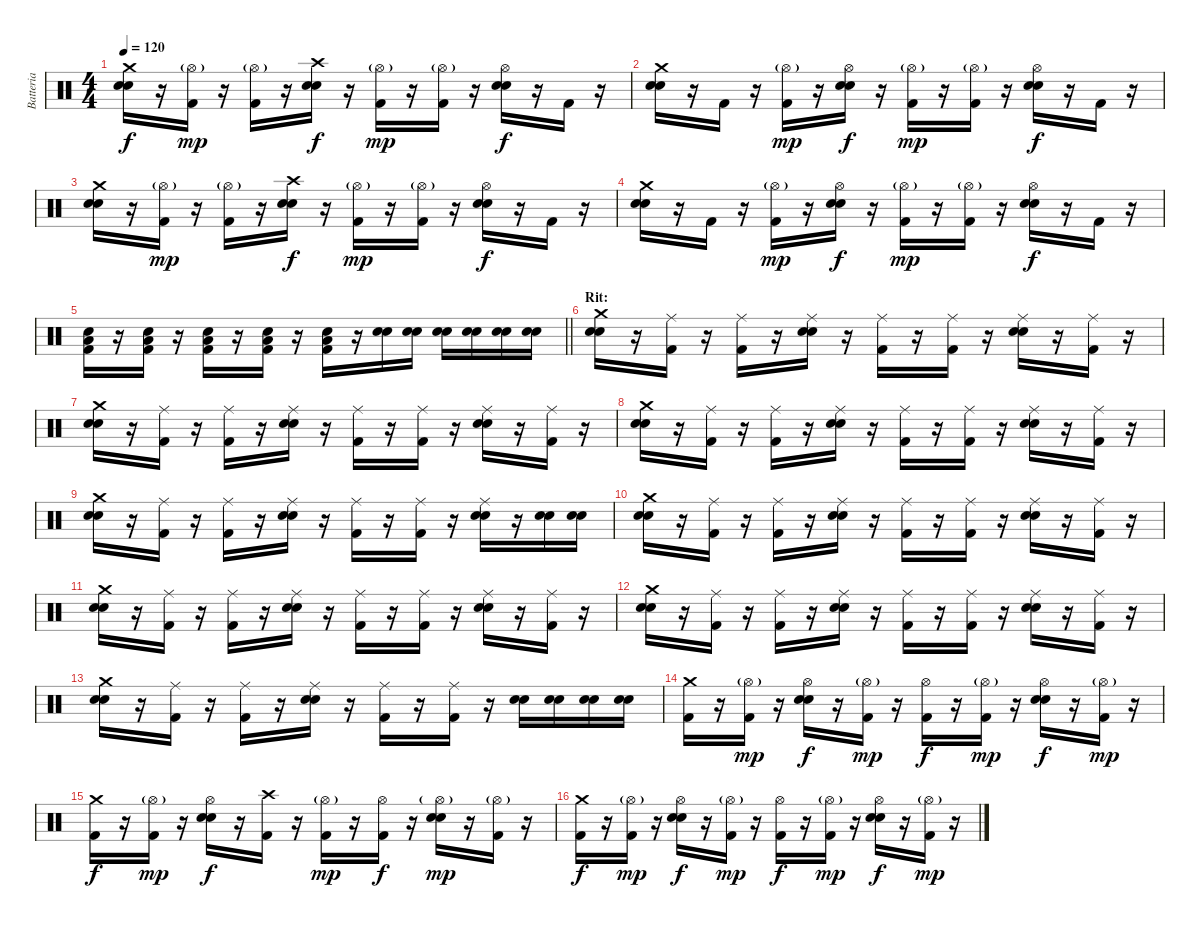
\track ("Batteria" "Batteria") {instrument percussion}
\staff {score}
\articulation defaults
\ts (4 4)
\tempo 120
\clef neutral
\ks c
("Snare (hit) 2" "Snare (hit) 2" "Crash medium (hit)").16{dy f} r.16 ("Kick (hit) 2" "Hi-Hat (open)"{g}).16{dy mp} r.16 ("Kick (hit) 2" "Hi-Hat (open)"{g}).16 r.16 ("Snare (hit) 2" "Snare (hit) 2" "Crash high (hit)").16{dy f} r.16 ("Kick (hit) 2" "Hi-Hat (open)"{g}).16{dy mp} r.16 ("Kick (hit) 2" "Hi-Hat (open)"{g}).16 r.16 ("Snare (hit) 2" "Snare (hit) 2" "Hi-Hat (open)").16{dy f} r.16 "Kick (hit) 2".16 r.16 |
("Snare (hit) 2" "Snare (hit) 2" "Crash medium (hit)").16 r.16 "Kick (hit) 2".16 r.16 ("Kick (hit) 2" "Hi-Hat (open)"{g}).16{dy mp} r.16 ("Snare (hit) 2" "Snare (hit) 2" "Hi-Hat (open)").16{dy f} r.16 ("Kick (hit) 2" "Hi-Hat (open)"{g}).16{dy mp} r.16 ("Kick (hit) 2" "Hi-Hat (open)"{g}).16 r.16 ("Snare (hit) 2" "Snare (hit) 2" "Hi-Hat (open)").16{dy f} r.16 "Kick (hit) 2".16 r.16 |
("Snare (hit) 2" "Snare (hit) 2" "Crash medium (hit)").16 r.16 ("Kick (hit) 2" "Hi-Hat (open)"{g}).16{dy mp} r.16 ("Kick (hit) 2" "Hi-Hat (open)"{g}).16 r.16 ("Snare (hit) 2" "Snare (hit) 2" "Crash high (hit)").16{dy f} r.16 ("Kick (hit) 2" "Hi-Hat (open)"{g}).16{dy mp} r.16 ("Kick (hit) 2" "Hi-Hat (open)"{g}).16 r.16 ("Snare (hit) 2" "Snare (hit) 2" "Hi-Hat (open)").16{dy f} r.16 "Kick (hit) 2".16 r.16 |
("Snare (hit) 2" "Snare (hit) 2" "Crash medium (hit)").16 r.16 "Kick (hit) 2".16 r.16 ("Kick (hit) 2" "Hi-Hat (open)"{g}).16{dy mp} r.16 ("Snare (hit) 2" "Snare (hit) 2" "Hi-Hat (open)").16{dy f} r.16 ("Kick (hit) 2" "Hi-Hat (open)"{g}).16{dy mp} r.16 ("Kick (hit) 2" "Hi-Hat (open)"{g}).16 r.16 ("Snare (hit) 2" "Snare (hit) 2" "Hi-Hat (open)").16{dy f} r.16 "Kick (hit) 2".16 r.16 |
\barLineRight lightlight
("Kick (hit) 2" "Snare (hit) 2" "Low Floor Tom (hit)").16 r.16 ("Kick (hit) 2" "Snare (hit) 2" "Low Floor Tom (hit)").16 r.16 ("Kick (hit) 2" "Snare (hit) 2" "Low Floor Tom (hit)").16 r.16 ("Kick (hit) 2" "Snare (hit) 2" "Low Floor Tom (hit)").16 r.16 ("Kick (hit) 2" "Snare (hit) 2" "Low Floor Tom (hit)").16 r.16 ("Snare (hit) 2" "Snare (hit) 2").16 ("Snare (hit) 2" "Snare (hit) 2").16 ("Snare (hit) 2" "Snare (hit) 2").16 ("Snare (hit) 2" "Snare (hit) 2").16 ("Snare (hit) 2" "Snare (hit) 2").16 ("Snare (hit) 2" "Snare (hit) 2").16 |
\section ("" "Rit:")
("Snare (hit) 2" "Snare (hit) 2" "Crash medium (hit)").16 r.16 ("Kick (hit) 2" "Ride (middle)").16 r.16 ("Kick (hit) 2" "Ride (middle)").16 r.16 ("Snare (hit) 2" "Snare (hit) 2" "Ride (middle)").16 r.16 ("Kick (hit) 2" "Ride (middle)").16 r.16 ("Kick (hit) 2" "Ride (middle)").16 r.16 ("Snare (hit) 2" "Snare (hit) 2" "Ride (middle)").16 r.16 ("Kick (hit) 2" "Ride (middle)").16 r.16 |
("Snare (hit) 2" "Snare (hit) 2" "Crash medium (hit)").16 r.16 ("Kick (hit) 2" "Ride (middle)").16 r.16 ("Kick (hit) 2" "Ride (middle)").16 r.16 ("Snare (hit) 2" "Snare (hit) 2" "Ride (middle)").16 r.16 ("Kick (hit) 2" "Ride (middle)").16 r.16 ("Kick (hit) 2" "Ride (middle)").16 r.16 ("Snare (hit) 2" "Snare (hit) 2" "Ride (middle)").16 r.16 ("Kick (hit) 2" "Ride (middle)").16 r.16 |
("Snare (hit) 2" "Snare (hit) 2" "Crash medium (hit)").16 r.16 ("Kick (hit) 2" "Ride (middle)").16 r.16 ("Kick (hit) 2" "Ride (middle)").16 r.16 ("Snare (hit) 2" "Snare (hit) 2" "Ride (middle)").16 r.16 ("Kick (hit) 2" "Ride (middle)").16 r.16 ("Kick (hit) 2" "Ride (middle)").16 r.16 ("Snare (hit) 2" "Snare (hit) 2" "Ride (middle)").16 r.16 ("Kick (hit) 2" "Ride (middle)").16 r.16 |
("Snare (hit) 2" "Snare (hit) 2" "Crash medium (hit)").16 r.16 ("Kick (hit) 2" "Ride (middle)").16 r.16 ("Kick (hit) 2" "Ride (middle)").16 r.16 ("Snare (hit) 2" "Snare (hit) 2" "Ride (middle)").16 r.16 ("Kick (hit) 2" "Ride (middle)").16 r.16 ("Kick (hit) 2" "Ride (middle)").16 r.16 ("Snare (hit) 2" "Snare (hit) 2" "Ride (middle)").16 r.16 ("Snare (hit) 2" "Snare (hit) 2").16 ("Snare (hit) 2" "Snare (hit) 2").16 |
("Snare (hit) 2" "Snare (hit) 2" "Crash medium (hit)").16 r.16 ("Kick (hit) 2" "Ride (middle)").16 r.16 ("Kick (hit) 2" "Ride (middle)").16 r.16 ("Snare (hit) 2" "Snare (hit) 2" "Ride (middle)").16 r.16 ("Kick (hit) 2" "Ride (middle)").16 r.16 ("Kick (hit) 2" "Ride (middle)").16 r.16 ("Snare (hit) 2" "Snare (hit) 2" "Ride (middle)").16 r.16 ("Kick (hit) 2" "Ride (middle)").16 r.16 |
("Snare (hit) 2" "Snare (hit) 2" "Crash medium (hit)").16 r.16 ("Kick (hit) 2" "Ride (middle)").16 r.16 ("Kick (hit) 2" "Ride (middle)").16 r.16 ("Snare (hit) 2" "Snare (hit) 2" "Ride (middle)").16 r.16 ("Kick (hit) 2" "Ride (middle)").16 r.16 ("Kick (hit) 2" "Ride (middle)").16 r.16 ("Snare (hit) 2" "Snare (hit) 2" "Ride (middle)").16 r.16 ("Kick (hit) 2" "Ride (middle)").16 r.16 |
("Snare (hit) 2" "Snare (hit) 2" "Crash medium (hit)").16 r.16 ("Kick (hit) 2" "Ride (middle)").16 r.16 ("Kick (hit) 2" "Ride (middle)").16 r.16 ("Snare (hit) 2" "Snare (hit) 2" "Ride (middle)").16 r.16 ("Kick (hit) 2" "Ride (middle)").16 r.16 ("Kick (hit) 2" "Ride (middle)").16 r.16 ("Snare (hit) 2" "Snare (hit) 2" "Ride (middle)").16 r.16 ("Kick (hit) 2" "Ride (middle)").16 r.16 |
("Snare (hit) 2" "Snare (hit) 2" "Crash medium (hit)").16 r.16 ("Kick (hit) 2" "Ride (middle)").16 r.16 ("Kick (hit) 2" "Ride (middle)").16 r.16 ("Snare (hit) 2" "Snare (hit) 2" "Ride (middle)").16 r.16 ("Kick (hit) 2" "Ride (middle)").16 r.16 ("Kick (hit) 2" "Ride (middle)").16 r.16 ("Snare (hit) 2" "Snare (hit) 2").16 ("Snare (hit) 2" "Snare (hit) 2").16 ("Snare (hit) 2" "Snare (hit) 2").16 ("Snare (hit) 2" "Snare (hit) 2").16 |
("Kick (hit) 2" "Crash medium (hit)").16 r.16 ("Kick (hit) 2" "Hi-Hat (open)"{g}).16{dy mp} r.16 ("Snare (hit) 2" "Snare (hit) 2" "Hi-Hat (open)").16{dy f} r.16 ("Kick (hit) 2" "Hi-Hat (open)"{g}).16{dy mp} r.16 ("Kick (hit) 2" "Hi-Hat (open)").16{dy f} r.16 ("Kick (hit) 2" "Hi-Hat (open)"{g}).16{dy mp} r.16 ("Snare (hit) 2" "Snare (hit) 2" "Hi-Hat (open)").16{dy f} r.16 ("Kick (hit) 2" "Hi-Hat (open)"{g}).16{dy mp} r.16 |
("Kick (hit) 2" "Crash medium (hit)").16{dy f} r.16 ("Kick (hit) 2" "Hi-Hat (open)"{g}).16{dy mp} r.16 ("Snare (hit) 2" "Snare (hit) 2" "Hi-Hat (open)").16{dy f} r.16 ("Kick (hit) 2" "Crash high (hit)").16 r.16 ("Kick (hit) 2" "Hi-Hat (open)"{g}).16{dy mp} r.16 ("Kick (hit) 2" "Hi-Hat (open)").16{dy f} r.16 ("Snare (hit) 2" "Snare (hit) 2" "Hi-Hat (open)"{g}).16{dy mp} r.16 ("Kick (hit) 2" "Hi-Hat (open)"{g}).16 r.16 |
("Kick (hit) 2" "Crash medium (hit)").16{dy f} r.16 ("Kick (hit) 2" "Hi-Hat (open)"{g}).16{dy mp} r.16 ("Snare (hit) 2" "Snare (hit) 2" "Hi-Hat (open)").16{dy f} r.16 ("Kick (hit) 2" "Hi-Hat (open)"{g}).16{dy mp} r.16 ("Kick (hit) 2" "Hi-Hat (open)").16{dy f} r.16 ("Kick (hit) 2" "Hi-Hat (open)"{g}).16{dy mp} r.16 ("Snare (hit) 2" "Snare (hit) 2" "Hi-Hat (open)").16{dy f} r.16 ("Kick (hit) 2" "Hi-Hat (open)"{g}).16{dy mp} r.16
